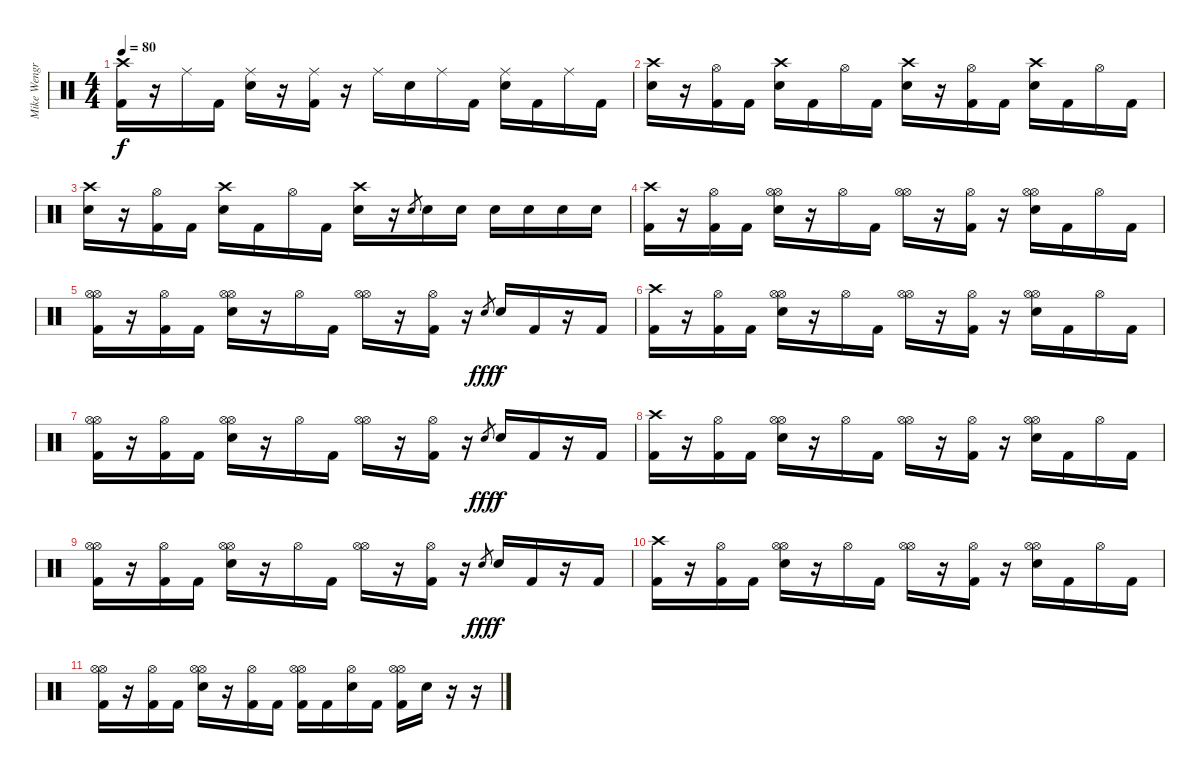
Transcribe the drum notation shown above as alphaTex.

\track ("Mike Wengren (Drums)" "Mike Wengr") {instrument percussion}
\staff {score}
\articulation defaults
\ts (4 4)
\tempo 80
\clef neutral
\ks c
("Crash high (hit)" "Kick (hit) 2").16{dy f} r.16 "Ride (middle)".16 "Kick (hit) 2".16 ("Ride (middle)" "Electric Snare (hit)").16 r.16 ("Ride (middle)" "Kick (hit) 2").16 r.16 "Ride (middle)".16 "Electric Snare (hit)".16 "Ride (middle)".16 "Kick (hit) 2".16 ("Ride (middle)" "Electric Snare (hit)").16 "Kick (hit) 2".16 "Ride (middle)".16 "Kick (hit) 2".16 |
("Crash high (hit)" "Electric Snare (hit)").16 r.16 ("Hi-Hat (open)" "Kick (hit) 2").16 "Kick (hit) 2".16 ("Crash high (hit)" "Electric Snare (hit)").16 "Kick (hit) 2".16 "Hi-Hat (open)".16 "Kick (hit) 2".16 ("Crash high (hit)" "Electric Snare (hit)").16 r.16 ("Hi-Hat (open)" "Kick (hit) 2").16 "Kick (hit) 2".16 ("Crash high (hit)" "Electric Snare (hit)").16 "Kick (hit) 2".16 "Hi-Hat (open)".16 "Kick (hit) 2".16 |
("Crash high (hit)" "Electric Snare (hit)").16 r.16 ("Hi-Hat (open)" "Kick (hit) 2").16 "Kick (hit) 2".16 ("Crash high (hit)" "Electric Snare (hit)").16 "Kick (hit) 2".16 "Hi-Hat (open)".16 "Kick (hit) 2".16 ("Crash high (hit)" "Electric Snare (hit)").16 r.16 "Electric Snare (hit)".8{gr} "Electric Snare (hit)".16 "Electric Snare (hit)".16 "Electric Snare (hit)".16 "Electric Snare (hit)".16 "Electric Snare (hit)".16 "Electric Snare (hit)".16 |
("Crash high (hit)" "Kick (hit) 2").16 r.16 ("Hi-Hat (open)" "Kick (hit) 2").16 "Kick (hit) 2".16 ("Hi-Hat (open)" "Hi-Hat (open)" "Electric Snare (hit)").16 r.16 "Hi-Hat (open)".16 "Kick (hit) 2".16 ("Hi-Hat (open)" "Hi-Hat (open)").16 r.16 ("Hi-Hat (open)" "Kick (hit) 2").16 r.16 ("Hi-Hat (open)" "Hi-Hat (open)" "Electric Snare (hit)").16 "Kick (hit) 2".16 "Hi-Hat (open)".16 "Kick (hit) 2".16 |
("Hi-Hat (open)" "Hi-Hat (open)" "Kick (hit) 2").16 r.16 ("Hi-Hat (open)" "Kick (hit) 2").16 "Kick (hit) 2".16 ("Hi-Hat (open)" "Hi-Hat (open)" "Electric Snare (hit)").16 r.16 "Hi-Hat (open)".16 "Kick (hit) 2".16 ("Hi-Hat (open)" "Hi-Hat (open)").16 r.16 ("Hi-Hat (open)" "Kick (hit) 2").16 r.16 "Electric Snare (hit)".8{gr dy fff} "Electric Snare (hit)".16{dy f} "Kick (hit) 2".16 r.16 "Kick (hit) 2".16 |
("Crash high (hit)" "Kick (hit) 2").16 r.16 ("Hi-Hat (open)" "Kick (hit) 2").16 "Kick (hit) 2".16 ("Hi-Hat (open)" "Hi-Hat (open)" "Electric Snare (hit)").16 r.16 "Hi-Hat (open)".16 "Kick (hit) 2".16 ("Hi-Hat (open)" "Hi-Hat (open)").16 r.16 ("Hi-Hat (open)" "Kick (hit) 2").16 r.16 ("Hi-Hat (open)" "Hi-Hat (open)" "Electric Snare (hit)").16 "Kick (hit) 2".16 "Hi-Hat (open)".16 "Kick (hit) 2".16 |
("Hi-Hat (open)" "Hi-Hat (open)" "Kick (hit) 2").16 r.16 ("Hi-Hat (open)" "Kick (hit) 2").16 "Kick (hit) 2".16 ("Hi-Hat (open)" "Hi-Hat (open)" "Electric Snare (hit)").16 r.16 "Hi-Hat (open)".16 "Kick (hit) 2".16 ("Hi-Hat (open)" "Hi-Hat (open)").16 r.16 ("Hi-Hat (open)" "Kick (hit) 2").16 r.16 "Electric Snare (hit)".8{gr dy fff} "Electric Snare (hit)".16{dy f} "Kick (hit) 2".16 r.16 "Kick (hit) 2".16 |
("Crash high (hit)" "Kick (hit) 2").16 r.16 ("Hi-Hat (open)" "Kick (hit) 2").16 "Kick (hit) 2".16 ("Hi-Hat (open)" "Hi-Hat (open)" "Electric Snare (hit)").16 r.16 "Hi-Hat (open)".16 "Kick (hit) 2".16 ("Hi-Hat (open)" "Hi-Hat (open)").16 r.16 ("Hi-Hat (open)" "Kick (hit) 2").16 r.16 ("Hi-Hat (open)" "Hi-Hat (open)" "Electric Snare (hit)").16 "Kick (hit) 2".16 "Hi-Hat (open)".16 "Kick (hit) 2".16 |
("Hi-Hat (open)" "Hi-Hat (open)" "Kick (hit) 2").16 r.16 ("Hi-Hat (open)" "Kick (hit) 2").16 "Kick (hit) 2".16 ("Hi-Hat (open)" "Hi-Hat (open)" "Electric Snare (hit)").16 r.16 "Hi-Hat (open)".16 "Kick (hit) 2".16 ("Hi-Hat (open)" "Hi-Hat (open)").16 r.16 ("Hi-Hat (open)" "Kick (hit) 2").16 r.16 "Electric Snare (hit)".8{gr dy fff} "Electric Snare (hit)".16{dy f} "Kick (hit) 2".16 r.16 "Kick (hit) 2".16 |
("Crash high (hit)" "Kick (hit) 2").16 r.16 ("Hi-Hat (open)" "Kick (hit) 2").16 "Kick (hit) 2".16 ("Hi-Hat (open)" "Hi-Hat (open)" "Electric Snare (hit)").16 r.16 "Hi-Hat (open)".16 "Kick (hit) 2".16 ("Hi-Hat (open)" "Hi-Hat (open)").16 r.16 ("Hi-Hat (open)" "Kick (hit) 2").16 r.16 ("Hi-Hat (open)" "Hi-Hat (open)" "Electric Snare (hit)").16 "Kick (hit) 2".16 "Hi-Hat (open)".16 "Kick (hit) 2".16 |
("Hi-Hat (open)" "Hi-Hat (open)" "Kick (hit) 2").16 r.16 ("Hi-Hat (open)" "Kick (hit) 2").16 "Kick (hit) 2".16 ("Hi-Hat (open)" "Hi-Hat (open)" "Electric Snare (hit)").16 r.16 ("Hi-Hat (open)" "Kick (hit) 2").16 "Kick (hit) 2".16 ("Hi-Hat (open)" "Hi-Hat (open)" "Kick (hit) 2").16 "Kick (hit) 2".16 ("Hi-Hat (open)" "Electric Snare (hit)").16 "Kick (hit) 2".16 ("Hi-Hat (open)" "Hi-Hat (open)" "Kick (hit) 2").16 "Electric Snare (hit)".16 r.16 r.16
